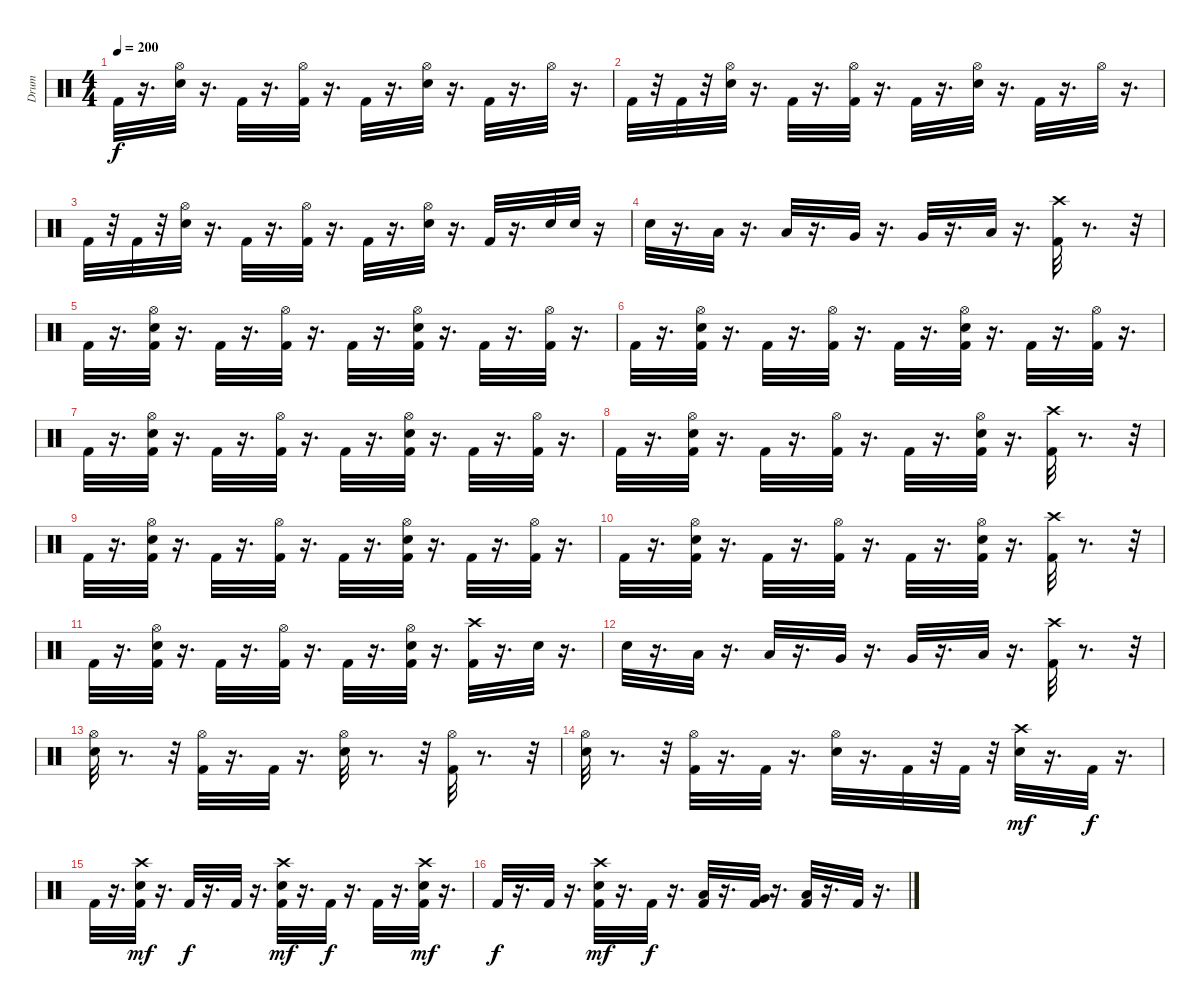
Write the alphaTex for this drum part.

\track ("Drum" "Drum") {instrument percussion}
\staff {score}
\articulation defaults
\ts (4 4)
\tempo 200
\clef neutral
\ks c "Kick (hit) 2".32{dy f}
r.16{d} ("Snare (hit) 2" "Hi-Hat (open)").32 r.16{d} "Kick (hit) 2".32 r.16{d} ("Hi-Hat (open)" "Kick (hit) 2").32 r.16{d} "Kick (hit) 2".32 r.16{d} ("Snare (hit) 2" "Hi-Hat (open)").32 r.16{d} "Kick (hit) 2".32 r.16{d} "Hi-Hat (open)".32 r.16{d} |
"Kick (hit) 2".32 r.32 "Kick (hit) 2".32 r.32 ("Hi-Hat (open)" "Snare (hit) 2").32 r.16{d} "Kick (hit) 2".32 r.16{d} ("Kick (hit) 2" "Hi-Hat (open)").32 r.16{d} "Kick (hit) 2".32 r.16{d} ("Hi-Hat (open)" "Snare (hit) 2").32 r.16{d} "Kick (hit) 2".32 r.16{d} "Hi-Hat (open)".32 r.16{d} |
"Kick (hit) 2".32 r.32 "Kick (hit) 2".32 r.32 ("Snare (hit) 2" "Hi-Hat (open)").32 r.16{d} "Kick (hit) 2".32 r.16{d} ("Hi-Hat (open)" "Kick (hit) 2").32 r.16{d} "Kick (hit) 2".32 r.16{d} ("Snare (hit) 2" "Hi-Hat (open)").32 r.16{d} "Kick (hit) 2".32 r.16{d} "Snare (hit) 2".32 "Snare (hit) 2".32 r.16 |
"Snare (hit) 2".32 r.16{d} "Low Tom (hit)".32 r.16{d} "Low Tom (hit)".32 r.16{d} "Very Low Tom (hit)".32 r.16{d} "Very Low Tom (hit)".32 r.16{d} "Low Floor Tom (hit)".32 r.16{d} ("Crash high (hit)" "Kick (hit) 2").32 r.8{d} r.32 |
"Kick (hit) 2".32 r.16{d} ("Kick (hit) 2" "Hi-Hat (open)" "Snare (hit) 2").32 r.16{d} "Kick (hit) 2".32 r.16{d} ("Kick (hit) 2" "Hi-Hat (open)").32 r.16{d} "Kick (hit) 2".32 r.16{d} ("Kick (hit) 2" "Hi-Hat (open)" "Snare (hit) 2").32 r.16{d} "Kick (hit) 2".32 r.16{d} ("Kick (hit) 2" "Hi-Hat (open)").32 r.16{d} |
"Kick (hit) 2".32 r.16{d} ("Kick (hit) 2" "Snare (hit) 2" "Hi-Hat (open)").32 r.16{d} "Kick (hit) 2".32 r.16{d} ("Hi-Hat (open)" "Kick (hit) 2").32 r.16{d} "Kick (hit) 2".32 r.16{d} ("Kick (hit) 2" "Snare (hit) 2" "Hi-Hat (open)").32 r.16{d} "Kick (hit) 2".32 r.16{d} ("Kick (hit) 2" "Hi-Hat (open)").32 r.16{d} |
"Kick (hit) 2".32 r.16{d} ("Kick (hit) 2" "Hi-Hat (open)" "Snare (hit) 2").32 r.16{d} "Kick (hit) 2".32 r.16{d} ("Kick (hit) 2" "Hi-Hat (open)").32 r.16{d} "Kick (hit) 2".32 r.16{d} ("Kick (hit) 2" "Hi-Hat (open)" "Snare (hit) 2").32 r.16{d} "Kick (hit) 2".32 r.16{d} ("Hi-Hat (open)" "Kick (hit) 2").32 r.16{d} |
"Kick (hit) 2".32 r.16{d} ("Hi-Hat (open)" "Kick (hit) 2" "Snare (hit) 2").32 r.16{d} "Kick (hit) 2".32 r.16{d} ("Hi-Hat (open)" "Kick (hit) 2").32 r.16{d} "Kick (hit) 2".32 r.16{d} ("Hi-Hat (open)" "Kick (hit) 2" "Snare (hit) 2").32 r.16{d} ("Crash high (hit)" "Kick (hit) 2").32 r.8{d} r.32 |
"Kick (hit) 2".32 r.16{d} ("Snare (hit) 2" "Hi-Hat (open)" "Kick (hit) 2").32 r.16{d} "Kick (hit) 2".32 r.16{d} ("Hi-Hat (open)" "Kick (hit) 2").32 r.16{d} "Kick (hit) 2".32 r.16{d} ("Snare (hit) 2" "Hi-Hat (open)" "Kick (hit) 2").32 r.16{d} "Kick (hit) 2".32 r.16{d} ("Hi-Hat (open)" "Kick (hit) 2").32 r.16{d} |
"Kick (hit) 2".32 r.16{d} ("Hi-Hat (open)" "Snare (hit) 2" "Kick (hit) 2").32 r.16{d} "Kick (hit) 2".32 r.16{d} ("Kick (hit) 2" "Hi-Hat (open)").32 r.16{d} "Kick (hit) 2".32 r.16{d} ("Hi-Hat (open)" "Snare (hit) 2" "Kick (hit) 2").32 r.16{d} ("Crash high (hit)" "Kick (hit) 2").32 r.8{d} r.32 |
"Kick (hit) 2".32 r.16{d} ("Snare (hit) 2" "Hi-Hat (open)" "Kick (hit) 2").32 r.16{d} "Kick (hit) 2".32 r.16{d} ("Hi-Hat (open)" "Kick (hit) 2").32 r.16{d} "Kick (hit) 2".32 r.16{d} ("Snare (hit) 2" "Hi-Hat (open)" "Kick (hit) 2").32 r.16{d} ("Crash high (hit)" "Kick (hit) 2").32 r.16{d} "Snare (hit) 2".32 r.16{d} |
"Snare (hit) 2".32 r.16{d} "Low Tom (hit)".32 r.16{d} "Low Tom (hit)".32 r.16{d} "Very Low Tom (hit)".32 r.16{d} "Very Low Tom (hit)".32 r.16{d} "Low Floor Tom (hit)".32 r.16{d} ("Kick (hit) 2" "Crash high (hit)").32 r.8{d} r.32 |
("Hi-Hat (open)" "Snare (hit) 2").32 r.8{d} r.32 ("Hi-Hat (open)" "Kick (hit) 2").32 r.16{d} "Kick (hit) 2".32 r.16{d} ("Hi-Hat (open)" "Snare (hit) 2").32 r.8{d} r.32 ("Kick (hit) 2" "Hi-Hat (open)").32 r.8{d} r.32 |
("Snare (hit) 2" "Hi-Hat (open)").32 r.8{d} r.32 ("Hi-Hat (open)" "Kick (hit) 2").32 r.16{d} "Kick (hit) 2".32 r.16{d} ("Hi-Hat (open)" "Snare (hit) 2").32 r.16{d} "Kick (hit) 2".32 r.32 "Kick (hit) 2".32 r.32 ("Crash high (hit)" "Snare (hit) 2").32{dy mf} r.16{d} "Kick (hit) 2".32{dy f} r.16{d} |
"Kick (hit) 2".32 r.16{d} ("Crash high (hit)" "Snare (hit) 2" "Kick (hit) 2").32{dy mf} r.16{d} "Kick (hit) 2".32{dy f} r.16{d} "Kick (hit) 2".32 r.16{d} ("Crash high (hit)" "Snare (hit) 2" "Kick (hit) 2").32{dy mf} r.16{d} "Kick (hit) 2".32{dy f} r.16{d} "Kick (hit) 2".32 r.16{d} ("Crash high (hit)" "Kick (hit) 2" "Snare (hit) 2").32{dy mf} r.16{d} |
"Kick (hit) 2".32{dy f} r.16{d} "Kick (hit) 2".32 r.16{d} ("Crash high (hit)" "Kick (hit) 2" "Snare (hit) 2").32{dy mf} r.16{d} "Kick (hit) 2".32{dy f} r.16{d} ("Low Tom (hit)" "Kick (hit) 2").32 r.16{d} ("Very Low Tom (hit)" "Kick (hit) 2").32 r.16{d} ("Low Floor Tom (hit)" "Kick (hit) 2").32 r.16{d} "Kick (hit) 2".32 r.16{d}
